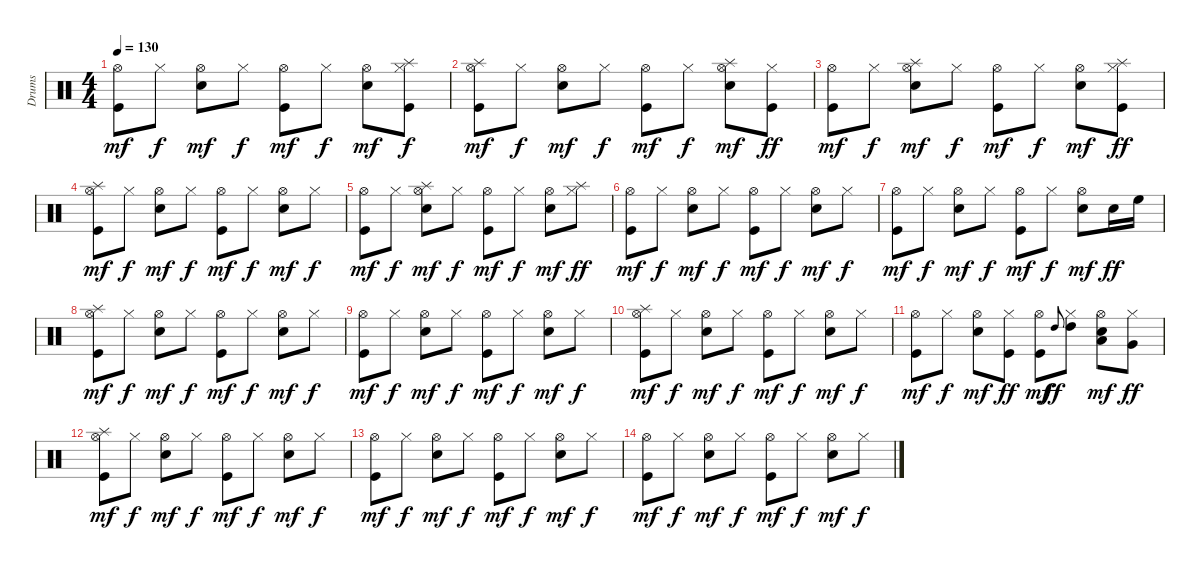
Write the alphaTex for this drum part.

\track ("Drums" "Drums") {instrument percussion}
\staff {score}
\articulation defaults
\ts (4 4)
\tempo 130
\clef neutral
\ks c
("Hi-Hat (open)" "Kick (hit)").8{dy mf} "Hi-Hat (closed)".8{dy f} ("Electric Snare (hit)" "Hi-Hat (open)").8{dy mf} "Hi-Hat (closed)".8{dy f} ("Hi-Hat (open)" "Kick (hit)").8{dy mf} "Hi-Hat (closed)".8{dy f} ("Electric Snare (hit)" "Hi-Hat (open)").8{dy mf} ("Splash (hit)" "Hi-Hat (closed)" "Kick (hit)").8{dy f} |
("Splash (hit)" "Hi-Hat (open)" "Kick (hit)").8{dy mf} "Hi-Hat (closed)".8{dy f} ("Electric Snare (hit)" "Hi-Hat (open)").8{dy mf} "Hi-Hat (closed)".8{dy f} ("Hi-Hat (open)" "Kick (hit)").8{dy mf} "Hi-Hat (closed)".8{dy f} ("Splash (hit)" "Electric Snare (hit)" "Hi-Hat (open)").8{dy mf} ("Hi-Hat (closed)" "Kick (hit)").8{dy ff} |
("Hi-Hat (open)" "Kick (hit)").8{dy mf} "Hi-Hat (closed)".8{dy f} ("Splash (hit)" "Electric Snare (hit)" "Hi-Hat (open)").8{dy mf} "Hi-Hat (closed)".8{dy f} ("Hi-Hat (open)" "Kick (hit)").8{dy mf} "Hi-Hat (closed)".8{dy f} ("Electric Snare (hit)" "Hi-Hat (open)").8{dy mf} ("Splash (hit)" "Hi-Hat (closed)" "Kick (hit)").8{dy ff} |
("Splash (hit)" "Hi-Hat (open)" "Kick (hit)").8{dy mf} "Hi-Hat (closed)".8{dy f} ("Electric Snare (hit)" "Hi-Hat (open)").8{dy mf} "Hi-Hat (closed)".8{dy f} ("Hi-Hat (open)" "Kick (hit)").8{dy mf} "Hi-Hat (closed)".8{dy f} ("Electric Snare (hit)" "Hi-Hat (open)").8{dy mf} "Hi-Hat (closed)".8{dy f} |
("Hi-Hat (open)" "Kick (hit)").8{dy mf} "Hi-Hat (closed)".8{dy f} ("Splash (hit)" "Electric Snare (hit)" "Hi-Hat (open)").8{dy mf} "Hi-Hat (closed)".8{dy f} ("Hi-Hat (open)" "Kick (hit)").8{dy mf} "Hi-Hat (closed)".8{dy f} ("Electric Snare (hit)" "Hi-Hat (open)").8{dy mf} ("Splash (hit)" "Hi-Hat (closed)").8{dy ff} |
("Hi-Hat (open)" "Kick (hit)").8{dy mf} "Hi-Hat (closed)".8{dy f} ("Electric Snare (hit)" "Hi-Hat (open)").8{dy mf} "Hi-Hat (closed)".8{dy f} ("Hi-Hat (open)" "Kick (hit)").8{dy mf} "Hi-Hat (closed)".8{dy f} ("Electric Snare (hit)" "Hi-Hat (open)").8{dy mf} "Hi-Hat (closed)".8{dy f} |
("Hi-Hat (open)" "Kick (hit)").8{dy mf} "Hi-Hat (closed)".8{dy f} ("Electric Snare (hit)" "Hi-Hat (open)").8{dy mf} "Hi-Hat (closed)".8{dy f} ("Hi-Hat (open)" "Kick (hit)").8{dy mf} "Hi-Hat (closed)".8{dy f} ("Electric Snare (hit)" "Hi-Hat (open)").8{dy mf} "Electric Snare (hit)".16{dy ff} "High Floor Tom (hit)".16 |
("Splash (hit)" "Hi-Hat (open)" "Kick (hit)").8{dy mf} "Hi-Hat (closed)".8{dy f} ("Electric Snare (hit)" "Hi-Hat (open)").8{dy mf} "Hi-Hat (closed)".8{dy f} ("Hi-Hat (open)" "Kick (hit)").8{dy mf} "Hi-Hat (closed)".8{dy f} ("Electric Snare (hit)" "Hi-Hat (open)").8{dy mf} "Hi-Hat (closed)".8{dy f} |
("Hi-Hat (open)" "Kick (hit)").8{dy mf} "Hi-Hat (closed)".8{dy f} ("Electric Snare (hit)" "Hi-Hat (open)").8{dy mf} "Hi-Hat (closed)".8{dy f} ("Hi-Hat (open)" "Kick (hit)").8{dy mf} "Hi-Hat (closed)".8{dy f} ("Electric Snare (hit)" "Hi-Hat (open)").8{dy mf} "Hi-Hat (closed)".8{dy f} |
("Splash (hit)" "Hi-Hat (open)" "Kick (hit)").8{dy mf} "Hi-Hat (closed)".8{dy f} ("Electric Snare (hit)" "Hi-Hat (open)").8{dy mf} "Hi-Hat (closed)".8{dy f} ("Hi-Hat (open)" "Kick (hit)").8{dy mf} "Hi-Hat (closed)".8{dy f} ("Electric Snare (hit)" "Hi-Hat (open)").8{dy mf} "Hi-Hat (closed)".8{dy f} |
("Hi-Hat (open)" "Kick (hit)").8{dy mf} "Hi-Hat (closed)".8{dy f} ("Electric Snare (hit)" "Hi-Hat (open)").8{dy mf} ("Hi-Hat (closed)" "Kick (hit)").8{dy ff} ("Hi-Hat (open)" "Kick (hit)").8{dy mf} "High Tom (hit)".8{gr onbeat dy ff} ("High Tom (hit)" "Hi-Hat (closed)").8 ("Low Tom (hit)" "Electric Snare (hit)" "Hi-Hat (open)").8{dy mf} ("Very Low Tom (hit)" "Hi-Hat (closed)").8{dy ff} |
("Splash (hit)" "Hi-Hat (open)" "Kick (hit)").8{dy mf} "Hi-Hat (closed)".8{dy f} ("Electric Snare (hit)" "Hi-Hat (open)").8{dy mf} "Hi-Hat (closed)".8{dy f} ("Hi-Hat (open)" "Kick (hit)").8{dy mf} "Hi-Hat (closed)".8{dy f} ("Electric Snare (hit)" "Hi-Hat (open)").8{dy mf} "Hi-Hat (closed)".8{dy f} |
("Hi-Hat (open)" "Kick (hit)").8{dy mf volume 11} "Hi-Hat (closed)".8{dy f} ("Electric Snare (hit)" "Hi-Hat (open)").8{dy mf volume 9} "Hi-Hat (closed)".8{dy f} ("Hi-Hat (open)" "Kick (hit)").8{dy mf volume 7} "Hi-Hat (closed)".8{dy f} ("Electric Snare (hit)" "Hi-Hat (open)").8{dy mf volume 5} "Hi-Hat (closed)".8{dy f} |
("Hi-Hat (open)" "Kick (hit)").8{dy mf volume 4} "Hi-Hat (closed)".8{dy f} ("Electric Snare (hit)" "Hi-Hat (open)").8{dy mf volume 3} "Hi-Hat (closed)".8{dy f} ("Hi-Hat (open)" "Kick (hit)").8{dy mf volume 2} "Hi-Hat (closed)".8{dy f} ("Electric Snare (hit)" "Hi-Hat (open)").8{dy mf volume 2} "Hi-Hat (closed)".8{dy f}
